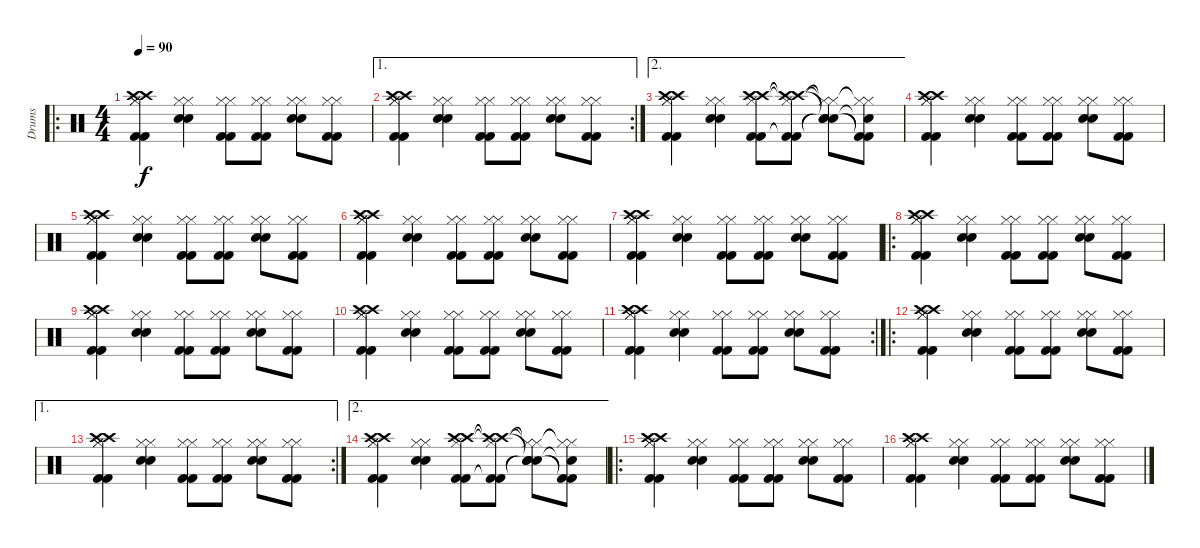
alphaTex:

\track ("Drums" "Drums") {instrument percussion}
\staff {score}
\articulation defaults
\ro
\ts (4 4)
\tempo 90
\clef neutral
\ks c
("Crash high (hit)" "Crash high (hit)" "Hi-Hat (closed)" "Hi-Hat (closed)" "Kick (hit) 2" "Kick (hit) 2").4{dy f} ("Hi-Hat (closed)" "Hi-Hat (closed)" "Snare (hit) 2" "Snare (hit) 2").4 ("Hi-Hat (closed)" "Hi-Hat (closed)" "Kick (hit) 2" "Kick (hit) 2").8 ("Hi-Hat (closed)" "Hi-Hat (closed)" "Kick (hit) 2" "Kick (hit) 2").8 ("Hi-Hat (closed)" "Hi-Hat (closed)" "Snare (hit) 2" "Snare (hit) 2").8 ("Hi-Hat (closed)" "Hi-Hat (closed)" "Kick (hit) 2" "Kick (hit) 2").8 |
\ae 1
\rc 2
("Crash high (hit)" "Crash high (hit)" "Hi-Hat (closed)" "Hi-Hat (closed)" "Kick (hit) 2" "Kick (hit) 2").4 ("Hi-Hat (closed)" "Hi-Hat (closed)" "Snare (hit) 2" "Snare (hit) 2").4 ("Hi-Hat (closed)" "Hi-Hat (closed)" "Kick (hit) 2" "Kick (hit) 2").8 ("Hi-Hat (closed)" "Hi-Hat (closed)" "Kick (hit) 2" "Kick (hit) 2").8 ("Hi-Hat (closed)" "Hi-Hat (closed)" "Snare (hit) 2" "Snare (hit) 2").8 ("Hi-Hat (closed)" "Hi-Hat (closed)" "Kick (hit) 2" "Kick (hit) 2").8 |
\ae 2
("Crash high (hit)" "Crash high (hit)" "Hi-Hat (closed)" "Hi-Hat (closed)" "Kick (hit) 2" "Kick (hit) 2").4 ("Hi-Hat (closed)" "Hi-Hat (closed)" "Snare (hit) 2" "Snare (hit) 2").4 ("Crash high (hit)" "Crash high (hit)" "Hi-Hat (closed)" "Kick (hit) 2" "Kick (hit) 2").8 ("Crash high (hit)"{t} "Crash high (hit)"{t} "Hi-Hat (closed)"{t} "Kick (hit) 2"{t} "Kick (hit) 2"{t}).8 ("Snare (hit)"{t} "Hi-Hat (closed)"{t} "Hi-Hat (closed)"{t} "Snare (hit) 2"{t} "Snare (hit) 2"{t}).8 ("Snare (hit)"{t} "Hi-Hat (closed)"{t} "Hi-Hat (closed)"{t} "Kick (hit) 2"{t} "Kick (hit) 2"{t}).8 |
("Crash high (hit)" "Crash high (hit)" "Hi-Hat (closed)" "Hi-Hat (closed)" "Kick (hit) 2" "Kick (hit) 2").4 ("Hi-Hat (closed)" "Hi-Hat (closed)" "Snare (hit) 2" "Snare (hit) 2").4 ("Hi-Hat (closed)" "Hi-Hat (closed)" "Kick (hit) 2" "Kick (hit) 2").8 ("Hi-Hat (closed)" "Hi-Hat (closed)" "Kick (hit) 2" "Kick (hit) 2").8 ("Hi-Hat (closed)" "Hi-Hat (closed)" "Snare (hit) 2" "Snare (hit) 2").8 ("Hi-Hat (closed)" "Hi-Hat (closed)" "Kick (hit) 2" "Kick (hit) 2").8 |
("Crash high (hit)" "Crash high (hit)" "Hi-Hat (closed)" "Hi-Hat (closed)" "Kick (hit) 2" "Kick (hit) 2").4 ("Hi-Hat (closed)" "Hi-Hat (closed)" "Snare (hit) 2" "Snare (hit) 2").4 ("Hi-Hat (closed)" "Hi-Hat (closed)" "Kick (hit) 2" "Kick (hit) 2").8 ("Hi-Hat (closed)" "Hi-Hat (closed)" "Kick (hit) 2" "Kick (hit) 2").8 ("Hi-Hat (closed)" "Hi-Hat (closed)" "Snare (hit) 2" "Snare (hit) 2").8 ("Hi-Hat (closed)" "Hi-Hat (closed)" "Kick (hit) 2" "Kick (hit) 2").8 |
("Crash high (hit)" "Crash high (hit)" "Hi-Hat (closed)" "Hi-Hat (closed)" "Kick (hit) 2" "Kick (hit) 2").4 ("Hi-Hat (closed)" "Hi-Hat (closed)" "Snare (hit) 2" "Snare (hit) 2").4 ("Hi-Hat (closed)" "Hi-Hat (closed)" "Kick (hit) 2" "Kick (hit) 2").8 ("Hi-Hat (closed)" "Hi-Hat (closed)" "Kick (hit) 2" "Kick (hit) 2").8 ("Hi-Hat (closed)" "Hi-Hat (closed)" "Snare (hit) 2" "Snare (hit) 2").8 ("Hi-Hat (closed)" "Hi-Hat (closed)" "Kick (hit) 2" "Kick (hit) 2").8 |
("Crash high (hit)" "Crash high (hit)" "Hi-Hat (closed)" "Hi-Hat (closed)" "Kick (hit) 2" "Kick (hit) 2").4 ("Hi-Hat (closed)" "Hi-Hat (closed)" "Snare (hit) 2" "Snare (hit) 2").4 ("Hi-Hat (closed)" "Hi-Hat (closed)" "Kick (hit) 2" "Kick (hit) 2").8 ("Hi-Hat (closed)" "Hi-Hat (closed)" "Kick (hit) 2" "Kick (hit) 2").8 ("Hi-Hat (closed)" "Hi-Hat (closed)" "Snare (hit) 2" "Snare (hit) 2").8 ("Hi-Hat (closed)" "Hi-Hat (closed)" "Kick (hit) 2" "Kick (hit) 2").8 |
\ro
("Crash high (hit)" "Crash high (hit)" "Hi-Hat (closed)" "Hi-Hat (closed)" "Kick (hit) 2" "Kick (hit) 2").4 ("Hi-Hat (closed)" "Hi-Hat (closed)" "Snare (hit) 2" "Snare (hit) 2").4 ("Hi-Hat (closed)" "Hi-Hat (closed)" "Kick (hit) 2" "Kick (hit) 2").8 ("Hi-Hat (closed)" "Hi-Hat (closed)" "Kick (hit) 2" "Kick (hit) 2").8 ("Hi-Hat (closed)" "Hi-Hat (closed)" "Snare (hit) 2" "Snare (hit) 2").8 ("Hi-Hat (closed)" "Hi-Hat (closed)" "Kick (hit) 2" "Kick (hit) 2").8 |
("Crash high (hit)" "Crash high (hit)" "Hi-Hat (closed)" "Hi-Hat (closed)" "Kick (hit) 2" "Kick (hit) 2").4 ("Hi-Hat (closed)" "Hi-Hat (closed)" "Snare (hit) 2" "Snare (hit) 2").4 ("Hi-Hat (closed)" "Hi-Hat (closed)" "Kick (hit) 2" "Kick (hit) 2").8 ("Hi-Hat (closed)" "Hi-Hat (closed)" "Kick (hit) 2" "Kick (hit) 2").8 ("Hi-Hat (closed)" "Hi-Hat (closed)" "Snare (hit) 2" "Snare (hit) 2").8 ("Hi-Hat (closed)" "Hi-Hat (closed)" "Kick (hit) 2" "Kick (hit) 2").8 |
("Crash high (hit)" "Crash high (hit)" "Hi-Hat (closed)" "Hi-Hat (closed)" "Kick (hit) 2" "Kick (hit) 2").4 ("Hi-Hat (closed)" "Hi-Hat (closed)" "Snare (hit) 2" "Snare (hit) 2").4 ("Hi-Hat (closed)" "Hi-Hat (closed)" "Kick (hit) 2" "Kick (hit) 2").8 ("Hi-Hat (closed)" "Hi-Hat (closed)" "Kick (hit) 2" "Kick (hit) 2").8 ("Hi-Hat (closed)" "Hi-Hat (closed)" "Snare (hit) 2" "Snare (hit) 2").8 ("Hi-Hat (closed)" "Hi-Hat (closed)" "Kick (hit) 2" "Kick (hit) 2").8 |
\rc 2
("Crash high (hit)" "Crash high (hit)" "Hi-Hat (closed)" "Hi-Hat (closed)" "Kick (hit) 2" "Kick (hit) 2").4 ("Hi-Hat (closed)" "Hi-Hat (closed)" "Snare (hit) 2" "Snare (hit) 2").4 ("Hi-Hat (closed)" "Hi-Hat (closed)" "Kick (hit) 2" "Kick (hit) 2").8 ("Hi-Hat (closed)" "Hi-Hat (closed)" "Kick (hit) 2" "Kick (hit) 2").8 ("Hi-Hat (closed)" "Hi-Hat (closed)" "Snare (hit) 2" "Snare (hit) 2").8 ("Hi-Hat (closed)" "Hi-Hat (closed)" "Kick (hit) 2" "Kick (hit) 2").8 |
\ro
("Crash high (hit)" "Crash high (hit)" "Hi-Hat (closed)" "Hi-Hat (closed)" "Kick (hit) 2" "Kick (hit) 2").4 ("Hi-Hat (closed)" "Hi-Hat (closed)" "Snare (hit) 2" "Snare (hit) 2").4 ("Hi-Hat (closed)" "Hi-Hat (closed)" "Kick (hit) 2" "Kick (hit) 2").8 ("Hi-Hat (closed)" "Hi-Hat (closed)" "Kick (hit) 2" "Kick (hit) 2").8 ("Hi-Hat (closed)" "Hi-Hat (closed)" "Snare (hit) 2" "Snare (hit) 2").8 ("Hi-Hat (closed)" "Hi-Hat (closed)" "Kick (hit) 2" "Kick (hit) 2").8 |
\ae 1
\rc 2
("Crash high (hit)" "Crash high (hit)" "Hi-Hat (closed)" "Hi-Hat (closed)" "Kick (hit) 2" "Kick (hit) 2").4 ("Hi-Hat (closed)" "Hi-Hat (closed)" "Snare (hit) 2" "Snare (hit) 2").4 ("Hi-Hat (closed)" "Hi-Hat (closed)" "Kick (hit) 2" "Kick (hit) 2").8 ("Hi-Hat (closed)" "Hi-Hat (closed)" "Kick (hit) 2" "Kick (hit) 2").8 ("Hi-Hat (closed)" "Hi-Hat (closed)" "Snare (hit) 2" "Snare (hit) 2").8 ("Hi-Hat (closed)" "Hi-Hat (closed)" "Kick (hit) 2" "Kick (hit) 2").8 |
\ae 2
("Crash high (hit)" "Crash high (hit)" "Hi-Hat (closed)" "Hi-Hat (closed)" "Kick (hit) 2" "Kick (hit) 2").4 ("Hi-Hat (closed)" "Hi-Hat (closed)" "Snare (hit) 2" "Snare (hit) 2").4 ("Crash high (hit)" "Crash high (hit)" "Hi-Hat (closed)" "Kick (hit) 2" "Kick (hit) 2").8 ("Crash high (hit)"{t} "Crash high (hit)"{t} "Hi-Hat (closed)"{t} "Kick (hit) 2"{t} "Kick (hit) 2"{t}).8 ("Snare (hit)"{t} "Hi-Hat (closed)"{t} "Hi-Hat (closed)"{t} "Snare (hit) 2"{t} "Snare (hit) 2"{t}).8 ("Snare (hit)"{t} "Hi-Hat (closed)"{t} "Hi-Hat (closed)"{t} "Kick (hit) 2"{t} "Kick (hit) 2"{t}).8 |
\ro
("Crash high (hit)" "Crash high (hit)" "Hi-Hat (closed)" "Hi-Hat (closed)" "Kick (hit) 2" "Kick (hit) 2").4 ("Hi-Hat (closed)" "Hi-Hat (closed)" "Snare (hit) 2" "Snare (hit) 2").4 ("Hi-Hat (closed)" "Hi-Hat (closed)" "Kick (hit) 2" "Kick (hit) 2").8 ("Hi-Hat (closed)" "Hi-Hat (closed)" "Kick (hit) 2" "Kick (hit) 2").8 ("Hi-Hat (closed)" "Hi-Hat (closed)" "Snare (hit) 2" "Snare (hit) 2").8 ("Hi-Hat (closed)" "Hi-Hat (closed)" "Kick (hit) 2" "Kick (hit) 2").8 |
("Crash high (hit)" "Crash high (hit)" "Hi-Hat (closed)" "Hi-Hat (closed)" "Kick (hit) 2" "Kick (hit) 2").4 ("Hi-Hat (closed)" "Hi-Hat (closed)" "Snare (hit) 2" "Snare (hit) 2").4 ("Hi-Hat (closed)" "Hi-Hat (closed)" "Kick (hit) 2" "Kick (hit) 2").8 ("Hi-Hat (closed)" "Hi-Hat (closed)" "Kick (hit) 2" "Kick (hit) 2").8 ("Hi-Hat (closed)" "Hi-Hat (closed)" "Snare (hit) 2" "Snare (hit) 2").8 ("Hi-Hat (closed)" "Hi-Hat (closed)" "Kick (hit) 2" "Kick (hit) 2").8
